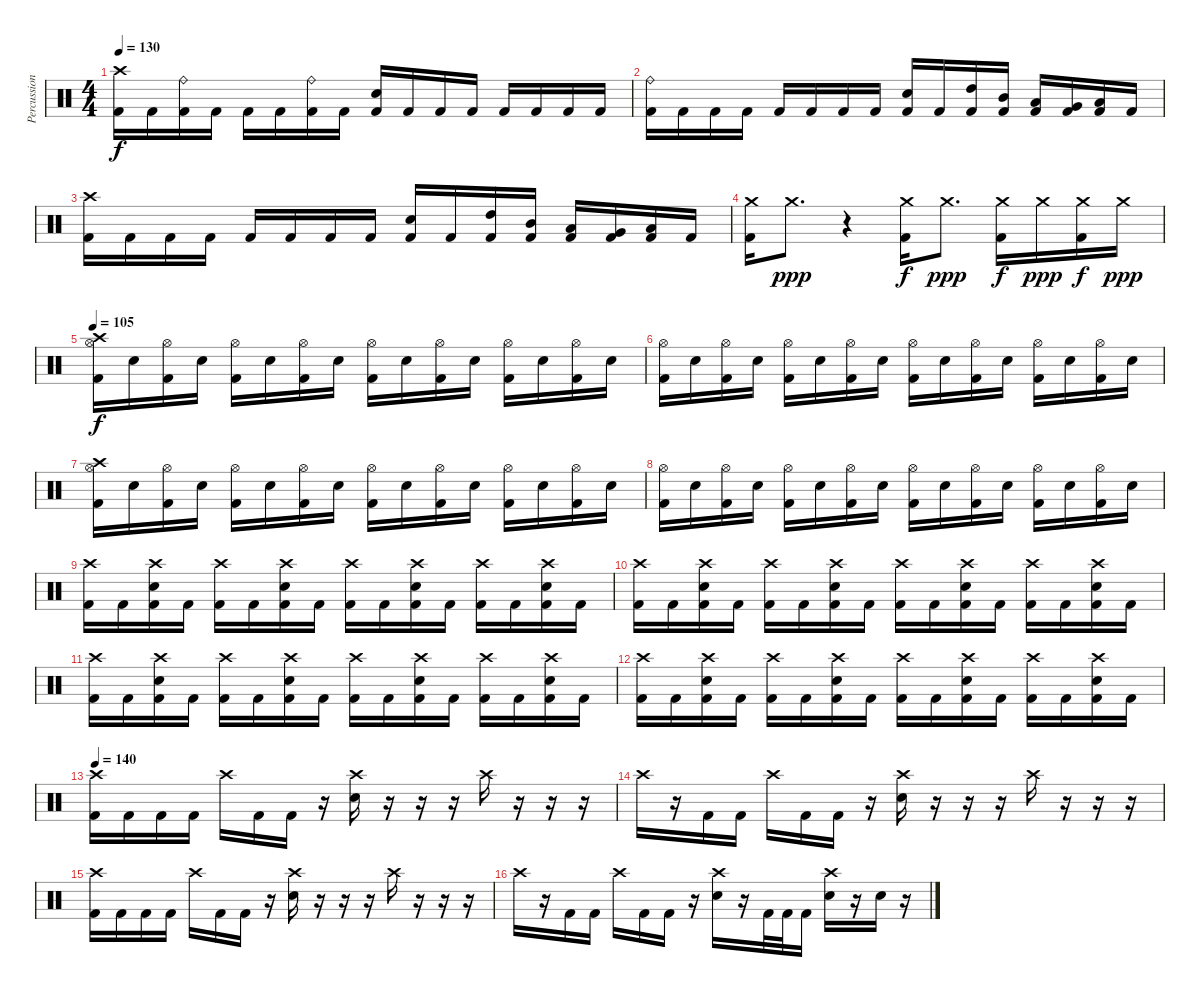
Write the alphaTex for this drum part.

\track ("Percussion" "Percussion") {instrument percussion}
\staff {score}
\articulation defaults
\ts (4 4)
\tempo 130
\clef neutral
\ks c
("Crash high (hit)" "Kick (hit) 2").16{dy f} "Kick (hit) 2".16 ("Ride (bell)" "Kick (hit) 2").16 "Kick (hit) 2".16 "Kick (hit) 2".16 "Kick (hit) 2".16 ("Ride (bell)" "Kick (hit) 2").16 "Kick (hit) 2".16 ("Electric Snare (hit)" "Kick (hit) 2").16 "Kick (hit) 2".16 "Kick (hit) 2".16 "Kick (hit) 2".16 "Kick (hit) 2".16 "Kick (hit) 2".16 "Kick (hit) 2".16 "Kick (hit) 2".16 |
("Ride (bell)" "Kick (hit) 2").16 "Kick (hit) 2".16 "Kick (hit) 2".16 "Kick (hit) 2".16 "Kick (hit) 2".16 "Kick (hit) 2".16 "Kick (hit) 2".16 "Kick (hit) 2".16 ("Electric Snare (hit)" "Kick (hit) 2").16 "Kick (hit) 2".16 ("High Tom (hit)" "Kick (hit) 2").16 ("Mid Tom (hit)" "Kick (hit) 2").16 ("Low Tom (hit)" "Kick (hit) 2").16 ("Very Low Tom (hit)" "Kick (hit) 2").16 ("Low Floor Tom (hit)" "Kick (hit) 2").16 "Kick (hit) 2".16 |
("Crash high (hit)" "Kick (hit) 2").16 "Kick (hit) 2".16 "Kick (hit) 2".16 "Kick (hit) 2".16 "Kick (hit) 2".16 "Kick (hit) 2".16 "Kick (hit) 2".16 "Kick (hit) 2".16 ("Electric Snare (hit)" "Kick (hit) 2").16 "Kick (hit) 2".16 ("High Tom (hit)" "Kick (hit) 2").16 ("Mid Tom (hit)" "Kick (hit) 2").16 ("Low Tom (hit)" "Kick (hit) 2").16 ("Very Low Tom (hit)" "Kick (hit) 2").16 ("Low Floor Tom (hit)" "Kick (hit) 2").16 "Kick (hit) 2".16 |
("Crash medium (hit)" "Kick (hit) 2").16 "Crash medium (hit)".8{d dy ppp} r.4 ("Crash medium (hit)" "Kick (hit) 2").16{dy f} "Crash medium (hit)".8{d dy ppp} ("Crash medium (hit)" "Kick (hit) 2").16{dy f} "Crash medium (hit)".16{dy ppp} ("Crash medium (hit)" "Kick (hit) 2").16{dy f} "Crash medium (hit)".16{dy ppp} |
\tempo 105
("Crash high (hit)" "Hi-Hat (open)" "Kick (hit) 2").16{dy f} "Electric Snare (hit)".16 ("Hi-Hat (open)" "Kick (hit) 2").16 "Electric Snare (hit)".16 ("Hi-Hat (open)" "Kick (hit) 2").16 "Electric Snare (hit)".16 ("Hi-Hat (open)" "Kick (hit) 2").16 "Electric Snare (hit)".16 ("Hi-Hat (open)" "Kick (hit) 2").16 "Electric Snare (hit)".16 ("Hi-Hat (open)" "Kick (hit) 2").16 "Electric Snare (hit)".16 ("Hi-Hat (open)" "Kick (hit) 2").16 "Electric Snare (hit)".16 ("Hi-Hat (open)" "Kick (hit) 2").16 "Electric Snare (hit)".16 |
("Hi-Hat (open)" "Kick (hit) 2").16 "Electric Snare (hit)".16 ("Hi-Hat (open)" "Kick (hit) 2").16 "Electric Snare (hit)".16 ("Hi-Hat (open)" "Kick (hit) 2").16 "Electric Snare (hit)".16 ("Hi-Hat (open)" "Kick (hit) 2").16 "Electric Snare (hit)".16 ("Hi-Hat (open)" "Kick (hit) 2").16 "Electric Snare (hit)".16 ("Hi-Hat (open)" "Kick (hit) 2").16 "Electric Snare (hit)".16 ("Hi-Hat (open)" "Kick (hit) 2").16 "Electric Snare (hit)".16 ("Hi-Hat (open)" "Kick (hit) 2").16 "Electric Snare (hit)".16 |
("Crash high (hit)" "Hi-Hat (open)" "Kick (hit) 2").16 "Electric Snare (hit)".16 ("Hi-Hat (open)" "Kick (hit) 2").16 "Electric Snare (hit)".16 ("Hi-Hat (open)" "Kick (hit) 2").16 "Electric Snare (hit)".16 ("Hi-Hat (open)" "Kick (hit) 2").16 "Electric Snare (hit)".16 ("Hi-Hat (open)" "Kick (hit) 2").16 "Electric Snare (hit)".16 ("Hi-Hat (open)" "Kick (hit) 2").16 "Electric Snare (hit)".16 ("Hi-Hat (open)" "Kick (hit) 2").16 "Electric Snare (hit)".16 ("Hi-Hat (open)" "Kick (hit) 2").16 "Electric Snare (hit)".16 |
("Hi-Hat (open)" "Kick (hit) 2").16 "Electric Snare (hit)".16 ("Hi-Hat (open)" "Kick (hit) 2").16 "Electric Snare (hit)".16 ("Hi-Hat (open)" "Kick (hit) 2").16 "Electric Snare (hit)".16 ("Hi-Hat (open)" "Kick (hit) 2").16 "Electric Snare (hit)".16 ("Hi-Hat (open)" "Kick (hit) 2").16 "Electric Snare (hit)".16 ("Hi-Hat (open)" "Kick (hit) 2").16 "Electric Snare (hit)".16 ("Hi-Hat (open)" "Kick (hit) 2").16 "Electric Snare (hit)".16 ("Hi-Hat (open)" "Kick (hit) 2").16 "Electric Snare (hit)".16 |
("Crash high (hit)" "Kick (hit) 2").16 "Kick (hit) 2".16 ("Crash high (hit)" "Electric Snare (hit)" "Kick (hit) 2").16 "Kick (hit) 2".16 ("Crash high (hit)" "Kick (hit) 2").16 "Kick (hit) 2".16 ("Crash high (hit)" "Electric Snare (hit)" "Kick (hit) 2").16 "Kick (hit) 2".16 ("Crash high (hit)" "Kick (hit) 2").16 "Kick (hit) 2".16 ("Crash high (hit)" "Electric Snare (hit)" "Kick (hit) 2").16 "Kick (hit) 2".16 ("Crash high (hit)" "Kick (hit) 2").16 "Kick (hit) 2".16 ("Crash high (hit)" "Electric Snare (hit)" "Kick (hit) 2").16 "Kick (hit) 2".16 |
("Crash high (hit)" "Kick (hit) 2").16 "Kick (hit) 2".16 ("Crash high (hit)" "Electric Snare (hit)" "Kick (hit) 2").16 "Kick (hit) 2".16 ("Crash high (hit)" "Kick (hit) 2").16 "Kick (hit) 2".16 ("Crash high (hit)" "Electric Snare (hit)" "Kick (hit) 2").16 "Kick (hit) 2".16 ("Crash high (hit)" "Kick (hit) 2").16 "Kick (hit) 2".16 ("Crash high (hit)" "Electric Snare (hit)" "Kick (hit) 2").16 "Kick (hit) 2".16 ("Crash high (hit)" "Kick (hit) 2").16 "Kick (hit) 2".16 ("Crash high (hit)" "Electric Snare (hit)" "Kick (hit) 2").16 "Kick (hit) 2".16 |
("Crash high (hit)" "Kick (hit) 2").16 "Kick (hit) 2".16 ("Crash high (hit)" "Electric Snare (hit)" "Kick (hit) 2").16 "Kick (hit) 2".16 ("Crash high (hit)" "Kick (hit) 2").16 "Kick (hit) 2".16 ("Crash high (hit)" "Electric Snare (hit)" "Kick (hit) 2").16 "Kick (hit) 2".16 ("Crash high (hit)" "Kick (hit) 2").16 "Kick (hit) 2".16 ("Crash high (hit)" "Electric Snare (hit)" "Kick (hit) 2").16 "Kick (hit) 2".16 ("Crash high (hit)" "Kick (hit) 2").16 "Kick (hit) 2".16 ("Crash high (hit)" "Electric Snare (hit)" "Kick (hit) 2").16 "Kick (hit) 2".16 |
("Crash high (hit)" "Kick (hit) 2").16 "Kick (hit) 2".16 ("Crash high (hit)" "Electric Snare (hit)" "Kick (hit) 2").16 "Kick (hit) 2".16 ("Crash high (hit)" "Kick (hit) 2").16 "Kick (hit) 2".16 ("Crash high (hit)" "Electric Snare (hit)" "Kick (hit) 2").16 "Kick (hit) 2".16 ("Crash high (hit)" "Kick (hit) 2").16 "Kick (hit) 2".16 ("Crash high (hit)" "Electric Snare (hit)" "Kick (hit) 2").16 "Kick (hit) 2".16 ("Crash high (hit)" "Kick (hit) 2").16 "Kick (hit) 2".16 ("Crash high (hit)" "Electric Snare (hit)" "Kick (hit) 2").16 "Kick (hit) 2".16 |
\tempo 130
\tempo 140
("Crash high (hit)" "Kick (hit) 2").16 "Kick (hit) 2".16 "Kick (hit) 2".16 "Kick (hit) 2".16 "Crash high (hit)".16 "Kick (hit) 2".16 "Kick (hit) 2".16 r.16 ("Crash high (hit)" "Electric Snare (hit)").16 r.16 r.16 r.16 "Crash high (hit)".16 r.16 r.16 r.16 |
"Crash high (hit)".16 r.16 "Kick (hit) 2".16 "Kick (hit) 2".16 "Crash high (hit)".16 "Kick (hit) 2".16 "Kick (hit) 2".16 r.16 ("Crash high (hit)" "Electric Snare (hit)").16 r.16 r.16 r.16 "Crash high (hit)".16 r.16 r.16 r.16 |
("Crash high (hit)" "Kick (hit) 2").16 "Kick (hit) 2".16 "Kick (hit) 2".16 "Kick (hit) 2".16 "Crash high (hit)".16 "Kick (hit) 2".16 "Kick (hit) 2".16 r.16 ("Crash high (hit)" "Electric Snare (hit)").16 r.16 r.16 r.16 "Crash high (hit)".16 r.16 r.16 r.16 |
"Crash high (hit)".16 r.16 "Kick (hit) 2".16 "Kick (hit) 2".16 "Crash high (hit)".16 "Kick (hit) 2".16 "Kick (hit) 2".16 r.16 ("Crash high (hit)" "Electric Snare (hit)").16 r.16 "Kick (hit) 2".32 "Kick (hit) 2".32 "Kick (hit) 2".16 ("Crash high (hit)" "Electric Snare (hit)").16 r.16 "Electric Snare (hit)".16 r.16
